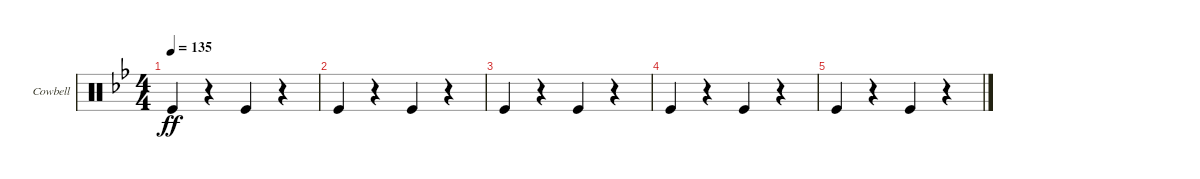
\defaultSystemsLayout 4
\bracketExtendMode groupsimilarinstruments
\firstSystemTrackNameOrientation horizontal
\otherSystemsTrackNameOrientation horizontal
\track ("Cowbell" "Cowbell") {instrument percussion}
\staff {score}
\articulation defaults
\ts (4 4)
\tempo 135
\clef neutral
\scale
0.333333
\ks bb "Kick (hit)".4{dy ff}
r.4 "Kick (hit)".4 r.4 |
\scale
0.333333 "Kick (hit)".4 r.4 "Kick (hit)".4 r.4 |
\scale
0.333333 "Kick (hit)".4 r.4 "Kick (hit)".4 r.4 |
\scale
0.333333 "Kick (hit)".4 r.4 "Kick (hit)".4 r.4 |
"Kick (hit)".4 r.4 "Kick (hit)".4 r.4
